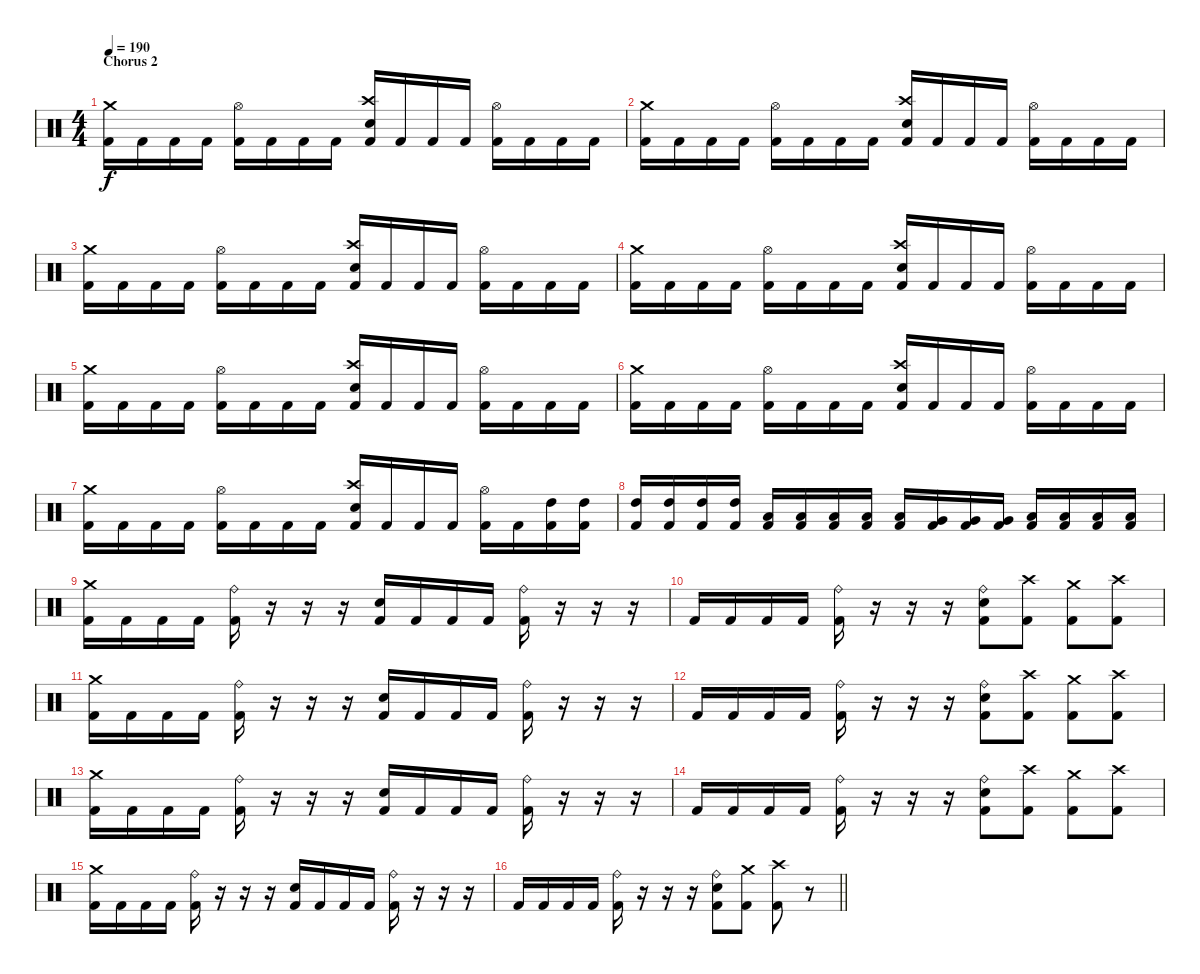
\track "" {instrument percussion}
\staff {score}
\articulation defaults
\ts (4 4)
\section ("" "Chorus 2")
\tempo 190
\clef neutral
\ks c
("Crash medium (hit)" "Kick (hit) 2").16{dy f} "Kick (hit) 2".16 "Kick (hit) 2".16 "Kick (hit) 2".16 ("Hi-Hat (open)" "Kick (hit) 2").16 "Kick (hit) 2".16 "Kick (hit) 2".16 "Kick (hit) 2".16 ("Crash high (hit)" "Electric Snare (hit)" "Kick (hit) 2").16 "Kick (hit) 2".16 "Kick (hit) 2".16 "Kick (hit) 2".16 ("Hi-Hat (open)" "Kick (hit) 2").16 "Kick (hit) 2".16 "Kick (hit) 2".16 "Kick (hit) 2".16 |
("Crash medium (hit)" "Kick (hit) 2").16 "Kick (hit) 2".16 "Kick (hit) 2".16 "Kick (hit) 2".16 ("Hi-Hat (open)" "Kick (hit) 2").16 "Kick (hit) 2".16 "Kick (hit) 2".16 "Kick (hit) 2".16 ("Crash high (hit)" "Electric Snare (hit)" "Kick (hit) 2").16 "Kick (hit) 2".16 "Kick (hit) 2".16 "Kick (hit) 2".16 ("Hi-Hat (open)" "Kick (hit) 2").16 "Kick (hit) 2".16 "Kick (hit) 2".16 "Kick (hit) 2".16 |
("Crash medium (hit)" "Kick (hit) 2").16 "Kick (hit) 2".16 "Kick (hit) 2".16 "Kick (hit) 2".16 ("Hi-Hat (open)" "Kick (hit) 2").16 "Kick (hit) 2".16 "Kick (hit) 2".16 "Kick (hit) 2".16 ("Crash high (hit)" "Electric Snare (hit)" "Kick (hit) 2").16 "Kick (hit) 2".16 "Kick (hit) 2".16 "Kick (hit) 2".16 ("Hi-Hat (open)" "Kick (hit) 2").16 "Kick (hit) 2".16 "Kick (hit) 2".16 "Kick (hit) 2".16 |
("Crash medium (hit)" "Kick (hit) 2").16 "Kick (hit) 2".16 "Kick (hit) 2".16 "Kick (hit) 2".16 ("Hi-Hat (open)" "Kick (hit) 2").16 "Kick (hit) 2".16 "Kick (hit) 2".16 "Kick (hit) 2".16 ("Crash high (hit)" "Electric Snare (hit)" "Kick (hit) 2").16 "Kick (hit) 2".16 "Kick (hit) 2".16 "Kick (hit) 2".16 ("Hi-Hat (open)" "Kick (hit) 2").16 "Kick (hit) 2".16 "Kick (hit) 2".16 "Kick (hit) 2".16 |
("Crash medium (hit)" "Kick (hit) 2").16 "Kick (hit) 2".16 "Kick (hit) 2".16 "Kick (hit) 2".16 ("Hi-Hat (open)" "Kick (hit) 2").16 "Kick (hit) 2".16 "Kick (hit) 2".16 "Kick (hit) 2".16 ("Crash high (hit)" "Electric Snare (hit)" "Kick (hit) 2").16 "Kick (hit) 2".16 "Kick (hit) 2".16 "Kick (hit) 2".16 ("Hi-Hat (open)" "Kick (hit) 2").16 "Kick (hit) 2".16 "Kick (hit) 2".16 "Kick (hit) 2".16 |
("Crash medium (hit)" "Kick (hit) 2").16 "Kick (hit) 2".16 "Kick (hit) 2".16 "Kick (hit) 2".16 ("Hi-Hat (open)" "Kick (hit) 2").16 "Kick (hit) 2".16 "Kick (hit) 2".16 "Kick (hit) 2".16 ("Crash high (hit)" "Electric Snare (hit)" "Kick (hit) 2").16 "Kick (hit) 2".16 "Kick (hit) 2".16 "Kick (hit) 2".16 ("Hi-Hat (open)" "Kick (hit) 2").16 "Kick (hit) 2".16 "Kick (hit) 2".16 "Kick (hit) 2".16 |
("Crash medium (hit)" "Kick (hit) 2").16 "Kick (hit) 2".16 "Kick (hit) 2".16 "Kick (hit) 2".16 ("Hi-Hat (open)" "Kick (hit) 2").16 "Kick (hit) 2".16 "Kick (hit) 2".16 "Kick (hit) 2".16 ("Crash high (hit)" "Electric Snare (hit)" "Kick (hit) 2").16 "Kick (hit) 2".16 "Kick (hit) 2".16 "Kick (hit) 2".16 ("Hi-Hat (open)" "Kick (hit) 2").16 "Kick (hit) 2".16 ("High Tom (hit)" "Kick (hit) 2").16 ("High Tom (hit)" "Kick (hit) 2").16 |
("High Tom (hit)" "Kick (hit) 2").16 ("High Tom (hit)" "Kick (hit) 2").16 ("High Tom (hit)" "Kick (hit) 2").16 ("High Tom (hit)" "Kick (hit) 2").16 ("Low Tom (hit)" "Kick (hit) 2").16 ("Low Tom (hit)" "Kick (hit) 2").16 ("Low Tom (hit)" "Kick (hit) 2").16 ("Low Tom (hit)" "Kick (hit) 2").16 ("Low Tom (hit)" "Kick (hit) 2").16 ("Very Low Tom (hit)" "Kick (hit) 2").16 ("Very Low Tom (hit)" "Kick (hit) 2").16 ("Very Low Tom (hit)" "Kick (hit) 2").16 ("Low Floor Tom (hit)" "Kick (hit) 2").16 ("Low Floor Tom (hit)" "Kick (hit) 2").16 ("Low Floor Tom (hit)" "Kick (hit) 2").16 ("Low Floor Tom (hit)" "Kick (hit) 2").16 |
("Crash medium (hit)" "Kick (hit) 2").16 "Kick (hit) 2".16 "Kick (hit) 2".16 "Kick (hit) 2".16 ("Ride (bell)" "Kick (hit) 2").16 r.16 r.16 r.16 ("Electric Snare (hit)" "Kick (hit) 2").16 "Kick (hit) 2".16 "Kick (hit) 2".16 "Kick (hit) 2".16 ("Ride (bell)" "Kick (hit) 2").16 r.16 r.16 r.16 |
"Kick (hit) 2".16 "Kick (hit) 2".16 "Kick (hit) 2".16 "Kick (hit) 2".16 ("Ride (bell)" "Kick (hit) 2").16 r.16 r.16 r.16 ("Ride (bell)" "Electric Snare (hit)" "Kick (hit) 2").8 ("Crash high (hit)" "Kick (hit) 2").8 ("Crash medium (hit)" "Kick (hit) 2").8 ("Crash high (hit)" "Kick (hit) 2").8 |
("Crash medium (hit)" "Kick (hit) 2").16 "Kick (hit) 2".16 "Kick (hit) 2".16 "Kick (hit) 2".16 ("Ride (bell)" "Kick (hit) 2").16 r.16 r.16 r.16 ("Electric Snare (hit)" "Kick (hit) 2").16 "Kick (hit) 2".16 "Kick (hit) 2".16 "Kick (hit) 2".16 ("Ride (bell)" "Kick (hit) 2").16 r.16 r.16 r.16 |
"Kick (hit) 2".16 "Kick (hit) 2".16 "Kick (hit) 2".16 "Kick (hit) 2".16 ("Ride (bell)" "Kick (hit) 2").16 r.16 r.16 r.16 ("Ride (bell)" "Electric Snare (hit)" "Kick (hit) 2").8 ("Crash high (hit)" "Kick (hit) 2").8 ("Crash medium (hit)" "Kick (hit) 2").8 ("Crash high (hit)" "Kick (hit) 2").8 |
("Crash medium (hit)" "Kick (hit) 2").16 "Kick (hit) 2".16 "Kick (hit) 2".16 "Kick (hit) 2".16 ("Ride (bell)" "Kick (hit) 2").16 r.16 r.16 r.16 ("Electric Snare (hit)" "Kick (hit) 2").16 "Kick (hit) 2".16 "Kick (hit) 2".16 "Kick (hit) 2".16 ("Ride (bell)" "Kick (hit) 2").16 r.16 r.16 r.16 |
"Kick (hit) 2".16 "Kick (hit) 2".16 "Kick (hit) 2".16 "Kick (hit) 2".16 ("Ride (bell)" "Kick (hit) 2").16 r.16 r.16 r.16 ("Ride (bell)" "Electric Snare (hit)" "Kick (hit) 2").8 ("Crash high (hit)" "Kick (hit) 2").8 ("Crash medium (hit)" "Kick (hit) 2").8 ("Crash high (hit)" "Kick (hit) 2").8 |
("Crash medium (hit)" "Kick (hit) 2").16 "Kick (hit) 2".16 "Kick (hit) 2".16 "Kick (hit) 2".16 ("Ride (bell)" "Kick (hit) 2").16 r.16 r.16 r.16 ("Electric Snare (hit)" "Kick (hit) 2").16 "Kick (hit) 2".16 "Kick (hit) 2".16 "Kick (hit) 2".16 ("Ride (bell)" "Kick (hit) 2").16 r.16 r.16 r.16 |
\barLineRight lightlight "Kick (hit) 2".16 "Kick (hit) 2".16 "Kick (hit) 2".16 "Kick (hit) 2".16
("Ride (bell)" "Kick (hit) 2").16 r.16 r.16 r.16 ("Ride (bell)" "Electric Snare (hit)" "Kick (hit) 2").8 ("Crash medium (hit)" "Kick (hit) 2").8 ("Crash high (hit)" "Kick (hit) 2").8 r.8
